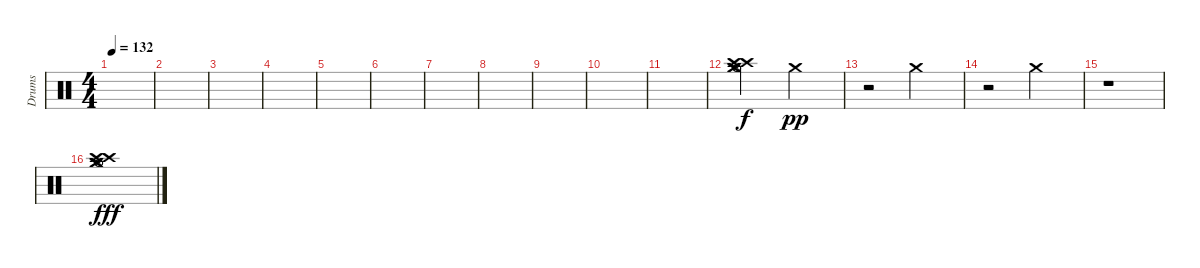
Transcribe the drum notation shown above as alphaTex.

\track ("Drums" "Drums") {instrument percussion}
\staff {score}
\articulation defaults
\ts (4 4)
\tempo 132
\clef neutral
\ks c
|
|
|
|
|
|
|
|
|
|
|
("Crash high (hit)" "Hi-Hat (open)" "Crash medium (hit)" "Crash high (hit)" "Hi-Hat (open)" "Crash medium (hit)").2 "Crash medium (hit)".2{dy pp} |
r.2 "Crash medium (hit)".2 |
r.2 "Crash medium (hit)".2 |
r.1 |
("Crash high (hit)" "Hi-Hat (open)" "Crash medium (hit)" "Crash high (hit)" "Hi-Hat (open)" "Crash medium (hit)").1{dy fff}
